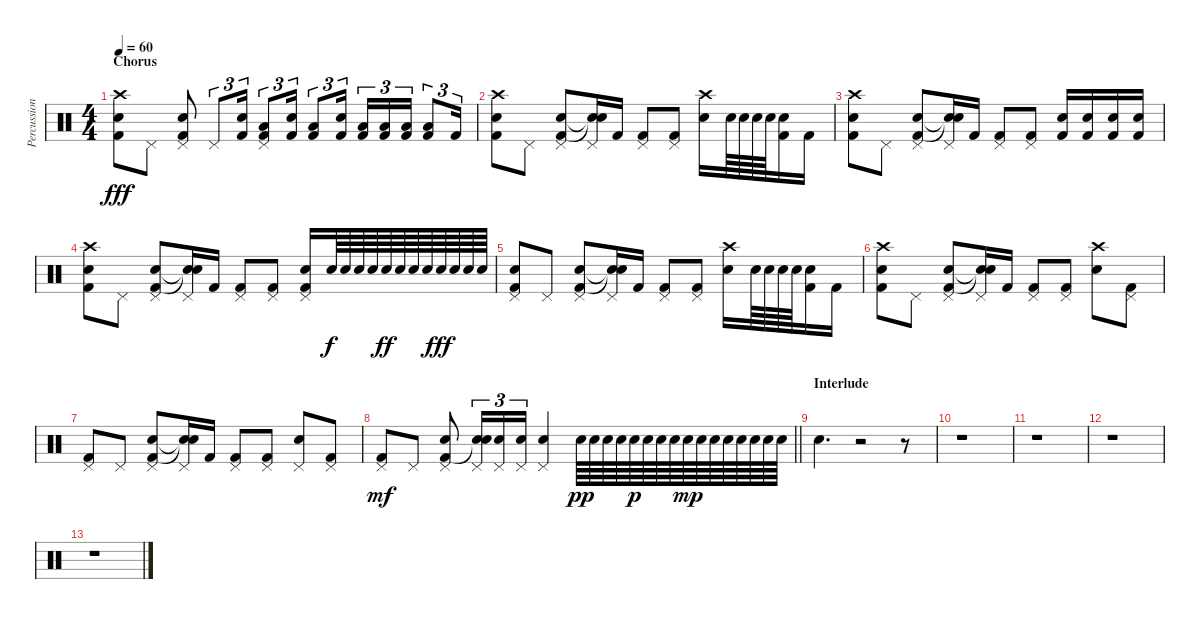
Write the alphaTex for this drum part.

\track ("Percussioni" "Percussion") {instrument percussion}
\staff {score}
\articulation defaults
\ts (4 4)
\section ("" "Chorus")
\tempo 60
\clef neutral
\ks c
("Crash high (hit)" "Snare (hit) 2" "Kick (hit) 2").8{dy fff} "Pedal Hi-Hat (hit)".8 ("Pedal Hi-Hat (hit)" "Snare (hit) 2" "Kick (hit) 2").8 "Pedal Hi-Hat (hit)".8{tu (3 2)} ("Snare (hit) 2" "Kick (hit) 2").16{tu (3 2)} ("Pedal Hi-Hat (hit)" "Low Tom (hit)" "Kick (hit) 2").8{tu (3 2)} ("Snare (hit) 2" "Kick (hit) 2").16{tu (3 2)} ("Low Tom (hit)" "Kick (hit) 2").8{tu (3 2)} ("Snare (hit) 2" "Kick (hit) 2").16{tu (3 2)} ("Low Tom (hit)" "Kick (hit) 2").16{tu (3 2)} ("Low Tom (hit)" "Kick (hit) 2").16{tu (3 2)} ("Low Tom (hit)" "Kick (hit) 2").16{tu (3 2)} ("Low Tom (hit)" "Kick (hit) 2").8{tu (3 2)} "Kick (hit) 2".16{tu (3 2)} |
("Crash high (hit)" "Snare (hit) 2" "Kick (hit) 2").8 "Pedal Hi-Hat (hit)".8 ("Pedal Hi-Hat (hit)" "Snare (hit) 2" "Kick (hit) 2").8 ("Pedal Hi-Hat (hit)" "Snare (hit)"{t} "Snare (hit)"{t}).16 "Kick (hit) 2".16 ("Pedal Hi-Hat (hit)" "Kick (hit) 2").8 ("Pedal Hi-Hat (hit)" "Kick (hit) 2").8 ("Crash high (hit)" "Snare (hit) 2").16 "Snare (hit) 2".64 "Snare (hit) 2".64 "Snare (hit) 2".64 "Snare (hit) 2".64 ("Snare (hit) 2" "Kick (hit) 2").16 "Kick (hit) 2".16 |
("Crash high (hit)" "Snare (hit) 2" "Kick (hit) 2").8 "Pedal Hi-Hat (hit)".8 ("Pedal Hi-Hat (hit)" "Snare (hit) 2" "Kick (hit) 2").8 ("Pedal Hi-Hat (hit)" "Snare (hit)"{t} "Snare (hit)"{t}).16 "Kick (hit) 2".16 ("Pedal Hi-Hat (hit)" "Kick (hit) 2").8 ("Pedal Hi-Hat (hit)" "Kick (hit) 2").8 ("Snare (hit) 2" "Kick (hit) 2").16 ("Snare (hit) 2" "Kick (hit) 2").16 ("Snare (hit) 2" "Kick (hit) 2").16 ("Snare (hit) 2" "Kick (hit) 2").16 |
("Crash high (hit)" "Snare (hit) 2" "Kick (hit) 2").8 "Pedal Hi-Hat (hit)".8 ("Pedal Hi-Hat (hit)" "Snare (hit) 2" "Kick (hit) 2").8 ("Pedal Hi-Hat (hit)" "Snare (hit)"{t} "Snare (hit)"{t}).16 "Kick (hit) 2".16 ("Pedal Hi-Hat (hit)" "Kick (hit) 2").8 ("Pedal Hi-Hat (hit)" "Kick (hit) 2").8 ("Pedal Hi-Hat (hit)" "Snare (hit) 2" "Kick (hit) 2").16 "Snare (hit) 2".64{dy f} "Snare (hit) 2".64 "Snare (hit) 2".64 "Snare (hit) 2".64 "Snare (hit) 2".64{dy ff} "Snare (hit) 2".64 "Snare (hit) 2".64 "Snare (hit) 2".64 "Snare (hit) 2".64{dy fff} "Snare (hit) 2".64 "Snare (hit) 2".64 "Snare (hit) 2".64 |
("Pedal Hi-Hat (hit)" "Snare (hit) 2" "Kick (hit) 2").8 "Pedal Hi-Hat (hit)".8 ("Pedal Hi-Hat (hit)" "Snare (hit) 2" "Kick (hit) 2").8 ("Pedal Hi-Hat (hit)" "Snare (hit)"{t} "Snare (hit)"{t}).16 "Kick (hit) 2".16 ("Pedal Hi-Hat (hit)" "Kick (hit) 2").8 ("Pedal Hi-Hat (hit)" "Kick (hit) 2").8 ("Crash high (hit)" "Snare (hit) 2").16 "Snare (hit) 2".64 "Snare (hit) 2".64 "Snare (hit) 2".64 "Snare (hit) 2".64 ("Snare (hit) 2" "Kick (hit) 2").16 "Kick (hit) 2".16 |
("Crash high (hit)" "Snare (hit) 2" "Kick (hit) 2").8 "Pedal Hi-Hat (hit)".8 ("Pedal Hi-Hat (hit)" "Snare (hit) 2" "Kick (hit) 2").8 ("Pedal Hi-Hat (hit)" "Snare (hit)"{t} "Snare (hit)"{t}).16 "Kick (hit) 2".16 ("Pedal Hi-Hat (hit)" "Kick (hit) 2").8 ("Pedal Hi-Hat (hit)" "Kick (hit) 2").8 ("Crash high (hit)" "Snare (hit) 2").8 ("Pedal Hi-Hat (hit)" "Kick (hit) 2").8 |
("Pedal Hi-Hat (hit)" "Kick (hit) 2").8 "Pedal Hi-Hat (hit)".8 ("Pedal Hi-Hat (hit)" "Snare (hit) 2" "Kick (hit) 2").8 ("Pedal Hi-Hat (hit)" "Snare (hit)"{t} "Snare (hit)"{t}).16 "Kick (hit) 2".16 ("Pedal Hi-Hat (hit)" "Kick (hit) 2").8 ("Pedal Hi-Hat (hit)" "Kick (hit) 2").8 ("Pedal Hi-Hat (hit)" "Snare (hit) 2").8 ("Pedal Hi-Hat (hit)" "Kick (hit) 2").8 |
\barLineRight lightlight
("Pedal Hi-Hat (hit)" "Kick (hit) 2").8{dy mf} "Pedal Hi-Hat (hit)".8 ("Pedal Hi-Hat (hit)" "Snare (hit) 2" "Kick (hit) 2").8 ("Pedal Hi-Hat (hit)" "Snare (hit) 2" "Snare (hit)"{t}).16{tu (3 2)} ("Pedal Hi-Hat (hit)" "Snare (hit) 2").16{tu (3 2)} ("Pedal Hi-Hat (hit)" "Snare (hit) 2").16{tu (3 2)} ("Pedal Hi-Hat (hit)" "Snare (hit) 2").4 "Snare (hit) 2".64{dy pp} "Snare (hit) 2".64 "Snare (hit) 2".64 "Snare (hit) 2".64 "Snare (hit) 2".64{dy p} "Snare (hit) 2".64 "Snare (hit) 2".64 "Snare (hit) 2".64 "Snare (hit) 2".64{dy mp} "Snare (hit) 2".64 "Snare (hit) 2".64 "Snare (hit) 2".64 "Snare (hit) 2".64 "Snare (hit) 2".64 "Snare (hit) 2".64 "Snare (hit) 2".64 |
\section ("" "Interlude")
"Snare (hit) 2".4{d} r.2 r.8 |
r.1 |
r.1 |
r.1 |
r.1
